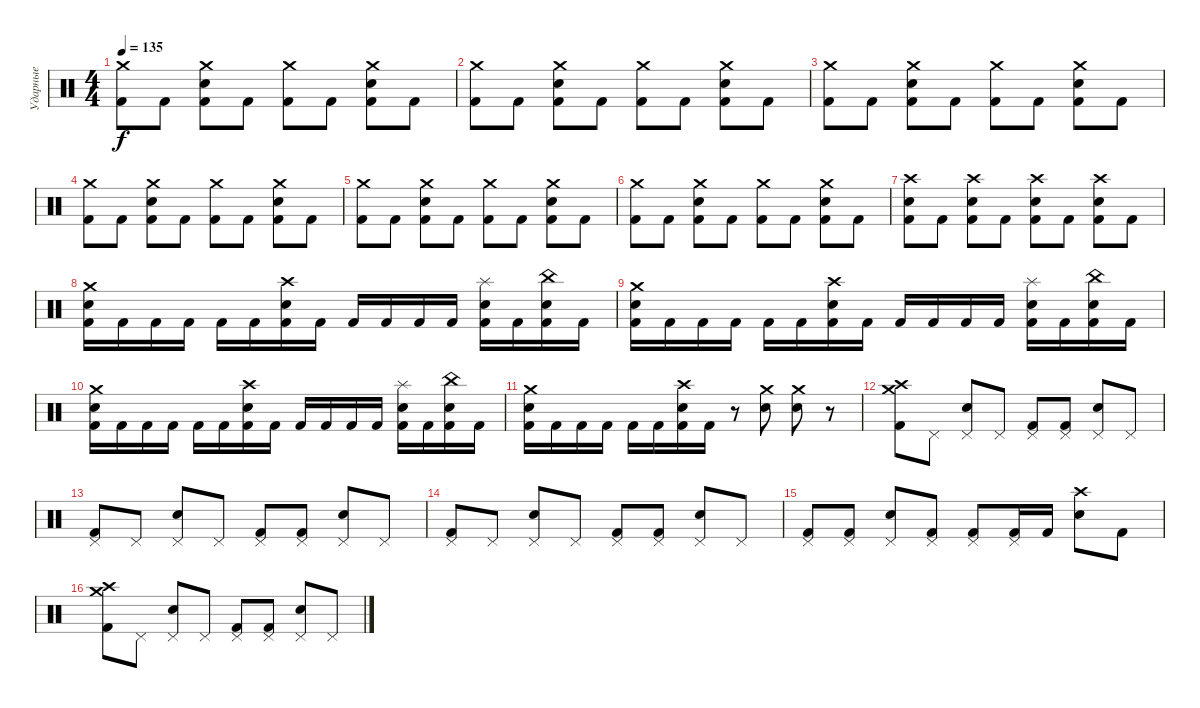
\track ("Ударные" "Ударные") {instrument percussion}
\staff {score}
\articulation defaults
\ts (4 4)
\tempo 135
\clef neutral
\ks c
("Crash medium (hit)" "Kick (hit) 2").8{dy f} "Kick (hit) 2".8 ("Crash medium (hit)" "Electric Snare (hit)" "Kick (hit) 2").8 "Kick (hit) 2".8 ("Crash medium (hit)" "Kick (hit) 2").8 "Kick (hit) 2".8 ("Crash medium (hit)" "Electric Snare (hit)" "Kick (hit) 2").8 "Kick (hit) 2".8 |
("Crash medium (hit)" "Kick (hit) 2").8 "Kick (hit) 2".8 ("Crash medium (hit)" "Electric Snare (hit)" "Kick (hit) 2").8 "Kick (hit) 2".8 ("Crash medium (hit)" "Kick (hit) 2").8 "Kick (hit) 2".8 ("Crash medium (hit)" "Electric Snare (hit)" "Kick (hit) 2").8 "Kick (hit) 2".8 |
("Crash medium (hit)" "Kick (hit) 2").8 "Kick (hit) 2".8 ("Crash medium (hit)" "Electric Snare (hit)" "Kick (hit) 2").8 "Kick (hit) 2".8 ("Crash medium (hit)" "Kick (hit) 2").8 "Kick (hit) 2".8 ("Crash medium (hit)" "Electric Snare (hit)" "Kick (hit) 2").8 "Kick (hit) 2".8 |
("Crash medium (hit)" "Kick (hit) 2").8 "Kick (hit) 2".8 ("Crash medium (hit)" "Electric Snare (hit)" "Kick (hit) 2").8 "Kick (hit) 2".8 ("Crash medium (hit)" "Kick (hit) 2").8 "Kick (hit) 2".8 ("Crash medium (hit)" "Electric Snare (hit)" "Kick (hit) 2").8 "Kick (hit) 2".8 |
("Crash medium (hit)" "Kick (hit) 2").8 "Kick (hit) 2".8 ("Crash medium (hit)" "Electric Snare (hit)" "Kick (hit) 2").8 "Kick (hit) 2".8 ("Crash medium (hit)" "Kick (hit) 2").8 "Kick (hit) 2".8 ("Crash medium (hit)" "Electric Snare (hit)" "Kick (hit) 2").8 "Kick (hit) 2".8 |
("Crash medium (hit)" "Kick (hit) 2").8 "Kick (hit) 2".8 ("Crash medium (hit)" "Electric Snare (hit)" "Kick (hit) 2").8 "Kick (hit) 2".8 ("Crash medium (hit)" "Kick (hit) 2").8 "Kick (hit) 2".8 ("Crash medium (hit)" "Electric Snare (hit)" "Kick (hit) 2").8 "Kick (hit) 2".8 |
("Crash high (hit)" "Electric Snare (hit)" "Kick (hit) 2").8 "Kick (hit) 2".8 ("Crash high (hit)" "Electric Snare (hit)" "Kick (hit) 2").8 "Kick (hit) 2".8 ("Crash high (hit)" "Electric Snare (hit)" "Kick (hit) 2").8 "Kick (hit) 2".8 ("Crash high (hit)" "Electric Snare (hit)" "Kick (hit) 2").8 "Kick (hit) 2".8 |
("Crash medium (hit)" "Electric Snare (hit)" "Kick (hit) 2").16 "Kick (hit) 2".16 "Kick (hit) 2".16 "Kick (hit) 2".16 "Kick (hit) 2".16 "Kick (hit) 2".16 ("Crash high (hit)" "Electric Snare (hit)" "Kick (hit) 2").16 "Kick (hit) 2".16 "Kick (hit) 2".16 "Kick (hit) 2".16 "Kick (hit) 2".16 "Kick (hit) 2".16 ("Splash (hit)" "Electric Snare (hit)" "Kick (hit) 2").16 "Kick (hit) 2".16 ("China (hit)" "Electric Snare (hit)" "Kick (hit) 2").16 "Kick (hit) 2".16 |
("Crash medium (hit)" "Electric Snare (hit)" "Kick (hit) 2").16 "Kick (hit) 2".16 "Kick (hit) 2".16 "Kick (hit) 2".16 "Kick (hit) 2".16 "Kick (hit) 2".16 ("Crash high (hit)" "Electric Snare (hit)" "Kick (hit) 2").16 "Kick (hit) 2".16 "Kick (hit) 2".16 "Kick (hit) 2".16 "Kick (hit) 2".16 "Kick (hit) 2".16 ("Splash (hit)" "Electric Snare (hit)" "Kick (hit) 2").16 "Kick (hit) 2".16 ("China (hit)" "Electric Snare (hit)" "Kick (hit) 2").16 "Kick (hit) 2".16 |
("Crash medium (hit)" "Electric Snare (hit)" "Kick (hit) 2").16 "Kick (hit) 2".16 "Kick (hit) 2".16 "Kick (hit) 2".16 "Kick (hit) 2".16 "Kick (hit) 2".16 ("Crash high (hit)" "Electric Snare (hit)" "Kick (hit) 2").16 "Kick (hit) 2".16 "Kick (hit) 2".16 "Kick (hit) 2".16 "Kick (hit) 2".16 "Kick (hit) 2".16 ("Splash (hit)" "Electric Snare (hit)" "Kick (hit) 2").16 "Kick (hit) 2".16 ("China (hit)" "Electric Snare (hit)" "Kick (hit) 2").16 "Kick (hit) 2".16 |
("Crash medium (hit)" "Electric Snare (hit)" "Kick (hit) 2").16 "Kick (hit) 2".16 "Kick (hit) 2".16 "Kick (hit) 2".16 "Kick (hit) 2".16 "Kick (hit) 2".16 ("Crash high (hit)" "Electric Snare (hit)" "Kick (hit) 2").16 "Kick (hit) 2".16 r.8 ("Crash medium (hit)" "Electric Snare (hit)").8 ("Crash medium (hit)" "Electric Snare (hit)").8 r.8 |
("Crash medium (hit)" "Crash high (hit)" "Kick (hit) 2").8 "Pedal Hi-Hat (hit)".8 ("Pedal Hi-Hat (hit)" "Electric Snare (hit)").8 "Pedal Hi-Hat (hit)".8 ("Pedal Hi-Hat (hit)" "Kick (hit) 2").8 ("Pedal Hi-Hat (hit)" "Kick (hit) 2").8 ("Pedal Hi-Hat (hit)" "Electric Snare (hit)").8 "Pedal Hi-Hat (hit)".8 |
("Pedal Hi-Hat (hit)" "Kick (hit) 2").8 "Pedal Hi-Hat (hit)".8 ("Pedal Hi-Hat (hit)" "Electric Snare (hit)").8 "Pedal Hi-Hat (hit)".8 ("Pedal Hi-Hat (hit)" "Kick (hit) 2").8 ("Pedal Hi-Hat (hit)" "Kick (hit) 2").8 ("Pedal Hi-Hat (hit)" "Electric Snare (hit)").8 "Pedal Hi-Hat (hit)".8 |
("Pedal Hi-Hat (hit)" "Kick (hit) 2").8 "Pedal Hi-Hat (hit)".8 ("Pedal Hi-Hat (hit)" "Electric Snare (hit)").8 "Pedal Hi-Hat (hit)".8 ("Pedal Hi-Hat (hit)" "Kick (hit) 2").8 ("Pedal Hi-Hat (hit)" "Kick (hit) 2").8 ("Pedal Hi-Hat (hit)" "Electric Snare (hit)").8 "Pedal Hi-Hat (hit)".8 |
("Pedal Hi-Hat (hit)" "Kick (hit) 2").8 ("Pedal Hi-Hat (hit)" "Kick (hit) 2").8 ("Pedal Hi-Hat (hit)" "Electric Snare (hit)").8 ("Pedal Hi-Hat (hit)" "Kick (hit) 2").8 ("Pedal Hi-Hat (hit)" "Kick (hit) 2").8 ("Pedal Hi-Hat (hit)" "Kick (hit) 2").16 "Kick (hit) 2".16 ("Crash high (hit)" "Electric Snare (hit)").8 "Kick (hit) 2".8 |
("Crash medium (hit)" "Crash high (hit)" "Kick (hit) 2").8 "Pedal Hi-Hat (hit)".8 ("Pedal Hi-Hat (hit)" "Electric Snare (hit)").8 "Pedal Hi-Hat (hit)".8 ("Pedal Hi-Hat (hit)" "Kick (hit) 2").8 ("Pedal Hi-Hat (hit)" "Kick (hit) 2").8 ("Pedal Hi-Hat (hit)" "Electric Snare (hit)").8 "Pedal Hi-Hat (hit)".8
